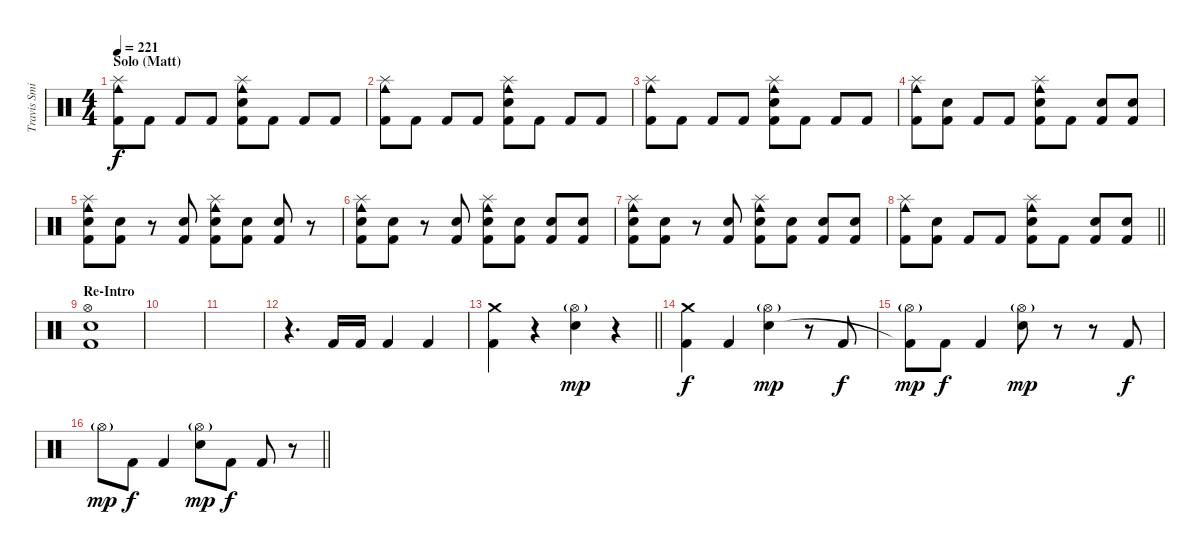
\track ("Travis Smith" "Travis Smi") {instrument percussion}
\staff {score}
\articulation defaults
\ts (4 4)
\section ("" "Solo (Matt)")
\tempo 221
\clef neutral
\ks c
("Splash (hit)" "Cowbell medium (hit)" "Kick (hit) 2").8{dy f} "Kick (hit) 2".8 "Kick (hit) 2".8 "Kick (hit) 2".8 ("Splash (hit)" "Electric Snare (hit)" "Cowbell medium (hit)" "Kick (hit) 2").8 "Kick (hit) 2".8 "Kick (hit) 2".8 "Kick (hit) 2".8 |
("Splash (hit)" "Cowbell medium (hit)" "Kick (hit) 2").8 "Kick (hit) 2".8 "Kick (hit) 2".8 "Kick (hit) 2".8 ("Splash (hit)" "Electric Snare (hit)" "Cowbell medium (hit)" "Kick (hit) 2").8 "Kick (hit) 2".8 "Kick (hit) 2".8 "Kick (hit) 2".8 |
("Splash (hit)" "Cowbell medium (hit)" "Kick (hit) 2").8 "Kick (hit) 2".8 "Kick (hit) 2".8 "Kick (hit) 2".8 ("Splash (hit)" "Electric Snare (hit)" "Cowbell medium (hit)" "Kick (hit) 2").8 "Kick (hit) 2".8 "Kick (hit) 2".8 "Kick (hit) 2".8 |
("Splash (hit)" "Cowbell medium (hit)" "Kick (hit) 2").8 ("Electric Snare (hit)" "Kick (hit) 2").8 "Kick (hit) 2".8 "Kick (hit) 2".8 ("Splash (hit)" "Electric Snare (hit)" "Cowbell medium (hit)" "Kick (hit) 2").8 "Kick (hit) 2".8 ("Electric Snare (hit)" "Kick (hit) 2").8 ("Electric Snare (hit)" "Kick (hit) 2").8 |
("Splash (hit)" "Electric Snare (hit)" "Cowbell medium (hit)" "Kick (hit) 2").8 ("Electric Snare (hit)" "Kick (hit) 2").8 r.8 ("Electric Snare (hit)" "Kick (hit) 2").8 ("Splash (hit)" "Electric Snare (hit)" "Cowbell medium (hit)" "Kick (hit) 2").8 ("Electric Snare (hit)" "Kick (hit) 2").8 ("Electric Snare (hit)" "Kick (hit) 2").8 r.8 |
("Splash (hit)" "Electric Snare (hit)" "Cowbell medium (hit)" "Kick (hit) 2").8 ("Electric Snare (hit)" "Kick (hit) 2").8 r.8 ("Electric Snare (hit)" "Kick (hit) 2").8 ("Splash (hit)" "Electric Snare (hit)" "Cowbell medium (hit)" "Kick (hit) 2").8 ("Electric Snare (hit)" "Kick (hit) 2").8 ("Electric Snare (hit)" "Kick (hit) 2").8 ("Electric Snare (hit)" "Kick (hit) 2").8 |
("Splash (hit)" "Electric Snare (hit)" "Cowbell medium (hit)" "Kick (hit) 2").8 ("Electric Snare (hit)" "Kick (hit) 2").8 r.8 ("Electric Snare (hit)" "Kick (hit) 2").8 ("Splash (hit)" "Electric Snare (hit)" "Cowbell medium (hit)" "Kick (hit) 2").8 ("Electric Snare (hit)" "Kick (hit) 2").8 ("Electric Snare (hit)" "Kick (hit) 2").8 ("Electric Snare (hit)" "Kick (hit) 2").8 |
\barLineRight lightlight
("Splash (hit)" "Cowbell medium (hit)" "Kick (hit) 2").8 ("Electric Snare (hit)" "Kick (hit) 2").8 "Kick (hit) 2".8 "Kick (hit) 2".8 ("Splash (hit)" "Electric Snare (hit)" "Cowbell medium (hit)" "Kick (hit) 2").8 "Kick (hit) 2".8 ("Electric Snare (hit)" "Kick (hit) 2").8 ("Electric Snare (hit)" "Kick (hit) 2").8 |
\section ("" "Re-Intro")
("Electric Snare (hit)" "Hi-Hat (open)" "Kick (hit) 2").1 |
|
|
r.4{d} "Kick (hit) 2".16 "Kick (hit) 2".16 "Kick (hit) 2".4 "Kick (hit) 2".4 |
\barLineRight lightlight
("Crash medium (hit)" "Kick (hit) 2").4 r.4 ("Hi-Hat (open)"{g} "Electric Snare (hit)").4{dy mp} r.4 |
("Crash medium (hit)" "Kick (hit) 2").4{dy f} "Kick (hit) 2".4 ("Hi-Hat (open)"{g} "Electric Snare (hit)").4{dy mp} r.8 "Kick (hit) 2".8{dy f} |
("Hi-Hat (open)"{g} "Kick (hit) 2"{t}).8{dy mp} "Kick (hit) 2".8{dy f} "Kick (hit) 2".4 ("Hi-Hat (open)"{g} "Electric Snare (hit)").8{dy mp} r.8 r.8 "Kick (hit) 2".8{dy f} |
\barLineRight lightlight "Hi-Hat (open)"{g}.8{dy mp} "Kick (hit) 2".8{dy f} "Kick (hit) 2".4
("Hi-Hat (open)"{g} "Electric Snare (hit)").8{dy mp} "Kick (hit) 2".8{dy f} "Kick (hit) 2".8 r.8
